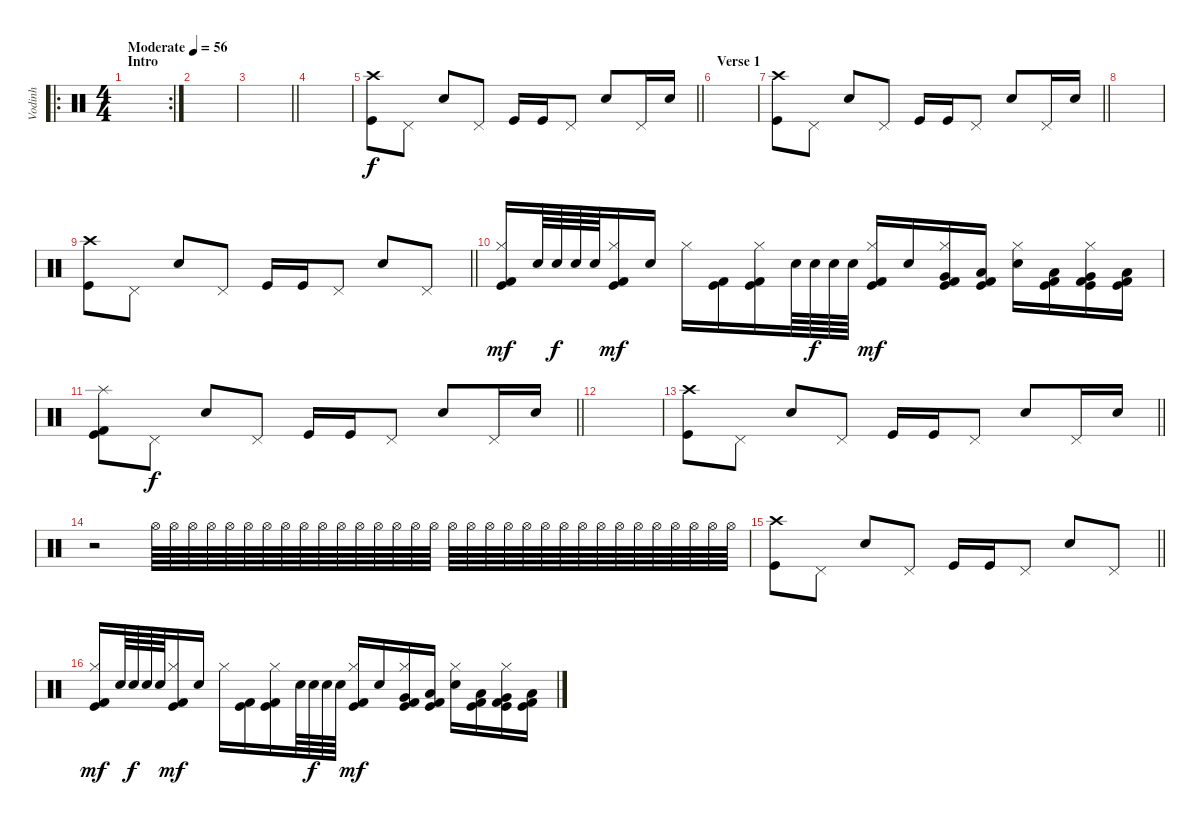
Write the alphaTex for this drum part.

\track ("Vodinh" "Vodinh") {instrument percussion}
\staff {score}
\articulation defaults
\ro
\rc 2
\ts (4 4)
\section ("" "Intro")
\tempo (56 "Moderate")
\clef neutral
\ks c
|
|
\barLineRight lightlight
|
|
\barLineRight lightlight
("Kick (hit)" "Crash high (hit)").8 "Pedal Hi-Hat (hit)".8 "Snare (hit) 2".8 "Pedal Hi-Hat (hit)".8 "Kick (hit)".16 "Kick (hit)".16 "Pedal Hi-Hat (hit)".8 "Snare (hit) 2".8 "Pedal Hi-Hat (hit)".16 "Electric Snare (hit)".16 |
\section ("" "Verse 1")
|
\barLineRight lightlight
("Kick (hit)" "Crash high (hit)").8 "Pedal Hi-Hat (hit)".8 "Snare (hit) 2".8 "Pedal Hi-Hat (hit)".8 "Kick (hit)".16 "Kick (hit)".16 "Pedal Hi-Hat (hit)".8 "Snare (hit) 2".8 "Pedal Hi-Hat (hit)".16 "Electric Snare (hit)".16 |
|
\barLineRight lightlight
("Kick (hit)" "Crash high (hit)").8 "Pedal Hi-Hat (hit)".8 "Snare (hit) 2".8 "Pedal Hi-Hat (hit)".8 "Kick (hit)".16 "Kick (hit)".16 "Pedal Hi-Hat (hit)".8 "Snare (hit) 2".8 "Pedal Hi-Hat (hit)".8 |
("Hi-Hat (closed)" "Kick (hit)" "Kick (hit) 2").16{dy mf} "Electric Snare (hit)".64 "Electric Snare (hit)".64{dy f} "Electric Snare (hit)".64 "Electric Snare (hit)".64 ("Hi-Hat (closed)" "Kick (hit)" "Kick (hit) 2").16{dy mf} "Electric Snare (hit)".16 "Hi-Hat (closed)".16 ("Kick (hit)" "Kick (hit) 2").16 ("Hi-Hat (closed)" "Kick (hit)" "Kick (hit) 2").16 "Electric Snare (hit)".64 "Electric Snare (hit)".64{dy f} "Electric Snare (hit)".64 "Electric Snare (hit)".64 ("Hi-Hat (closed)" "Kick (hit)" "Kick (hit) 2").16{dy mf} "Electric Snare (hit)".16 ("Hi-Hat (closed)" "Very Low Tom (hit)" "Kick (hit)" "Kick (hit) 2").16 ("Low Tom (hit)" "Kick (hit)" "Kick (hit) 2").16 ("Hi-Hat (closed)" "Electric Snare (hit)").16 ("Low Tom (hit)" "Kick (hit)" "Kick (hit) 2").16 ("Hi-Hat (closed)" "Very Low Tom (hit)" "Kick (hit)" "Kick (hit) 2").16 ("Low Floor Tom (hit)" "Kick (hit)" "Kick (hit) 2").16 |
\barLineRight lightlight
("Splash (hit)" "Kick (hit)" "Kick (hit) 2").8 "Pedal Hi-Hat (hit)".8{dy f} "Snare (hit) 2".8 "Pedal Hi-Hat (hit)".8 "Kick (hit)".16 "Kick (hit)".16 "Pedal Hi-Hat (hit)".8 "Snare (hit) 2".8 "Pedal Hi-Hat (hit)".16 "Electric Snare (hit)".16 |
|
\barLineRight lightlight
("Kick (hit)" "Crash high (hit)").8 "Pedal Hi-Hat (hit)".8 "Snare (hit) 2".8 "Pedal Hi-Hat (hit)".8 "Kick (hit)".16 "Kick (hit)".16 "Pedal Hi-Hat (hit)".8 "Snare (hit) 2".8 "Pedal Hi-Hat (hit)".16 "Electric Snare (hit)".16 |
r.2{volume 0} "Hi-Hat (open)".64{volume 10} "Hi-Hat (open)".64 "Hi-Hat (open)".64 "Hi-Hat (open)".64 "Hi-Hat (open)".64 "Hi-Hat (open)".64 "Hi-Hat (open)".64 "Hi-Hat (open)".64 "Hi-Hat (open)".64 "Hi-Hat (open)".64 "Hi-Hat (open)".64 "Hi-Hat (open)".64 "Hi-Hat (open)".64 "Hi-Hat (open)".64 "Hi-Hat (open)".64 "Hi-Hat (open)".64 "Hi-Hat (open)".64 "Hi-Hat (open)".64 "Hi-Hat (open)".64 "Hi-Hat (open)".64 "Hi-Hat (open)".64 "Hi-Hat (open)".64 "Hi-Hat (open)".64 "Hi-Hat (open)".64 "Hi-Hat (open)".64 "Hi-Hat (open)".64 "Hi-Hat (open)".64 "Hi-Hat (open)".64 "Hi-Hat (open)".64 "Hi-Hat (open)".64 "Hi-Hat (open)".64 "Hi-Hat (open)".64 |
\barLineRight lightlight
("Kick (hit)" "Crash high (hit)").8 "Pedal Hi-Hat (hit)".8 "Snare (hit) 2".8 "Pedal Hi-Hat (hit)".8 "Kick (hit)".16 "Kick (hit)".16 "Pedal Hi-Hat (hit)".8 "Snare (hit) 2".8 "Pedal Hi-Hat (hit)".8 |
("Hi-Hat (closed)" "Kick (hit)" "Kick (hit) 2").16{dy mf} "Electric Snare (hit)".64 "Electric Snare (hit)".64{dy f} "Electric Snare (hit)".64 "Electric Snare (hit)".64 ("Hi-Hat (closed)" "Kick (hit)" "Kick (hit) 2").16{dy mf} "Electric Snare (hit)".16 "Hi-Hat (closed)".16 ("Kick (hit)" "Kick (hit) 2").16 ("Hi-Hat (closed)" "Kick (hit)" "Kick (hit) 2").16 "Electric Snare (hit)".64 "Electric Snare (hit)".64{dy f} "Electric Snare (hit)".64 "Electric Snare (hit)".64 ("Hi-Hat (closed)" "Kick (hit)" "Kick (hit) 2").16{dy mf} "Electric Snare (hit)".16 ("Hi-Hat (closed)" "Very Low Tom (hit)" "Kick (hit)" "Kick (hit) 2").16 ("Low Tom (hit)" "Kick (hit)" "Kick (hit) 2").16 ("Hi-Hat (closed)" "Electric Snare (hit)").16 ("Low Tom (hit)" "Kick (hit)" "Kick (hit) 2").16 ("Hi-Hat (closed)" "Very Low Tom (hit)" "Kick (hit)" "Kick (hit) 2").16 ("Low Floor Tom (hit)" "Kick (hit)" "Kick (hit) 2").16
